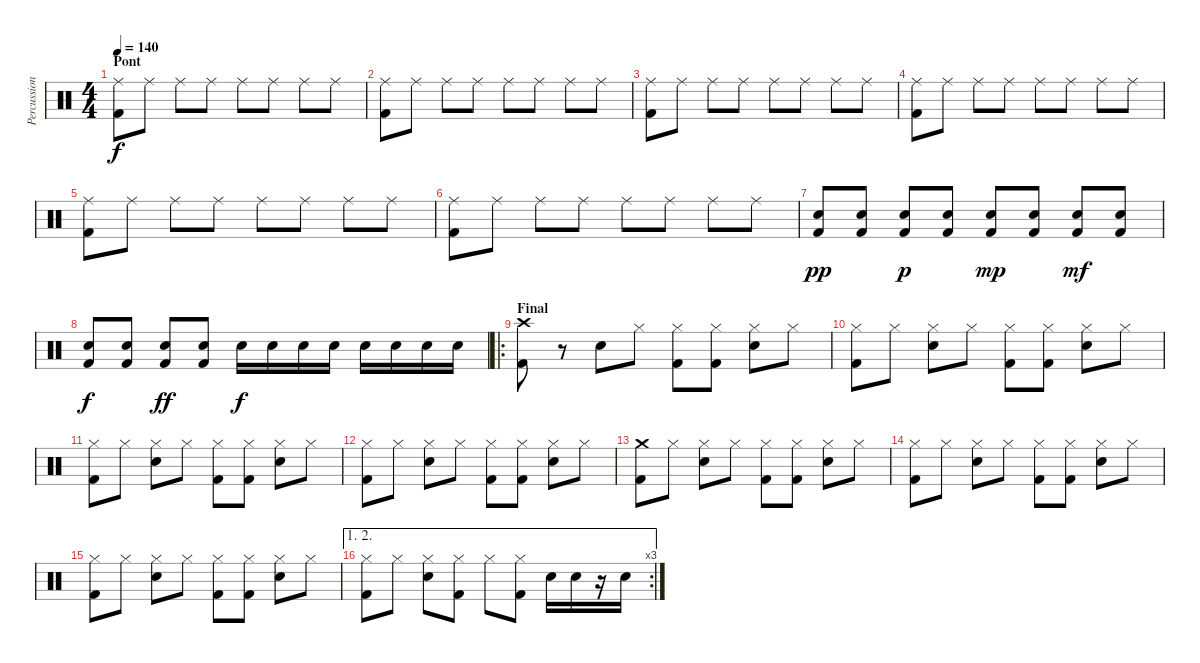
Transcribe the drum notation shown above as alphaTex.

\track ("Percussions" "Percussion") {instrument percussion}
\staff {score}
\articulation defaults
\ts (4 4)
\section ("" "Pont")
\tempo 140
\clef neutral
\ks c
("Ride (middle)" "Kick (hit) 2").8{dy f} "Ride (middle)".8 "Ride (middle)".8 "Ride (middle)".8 "Ride (middle)".8 "Ride (middle)".8 "Ride (middle)".8 "Ride (middle)".8 |
("Ride (middle)" "Kick (hit) 2").8 "Ride (middle)".8 "Ride (middle)".8 "Ride (middle)".8 "Ride (middle)".8 "Ride (middle)".8 "Ride (middle)".8 "Ride (middle)".8 |
("Ride (middle)" "Kick (hit) 2").8 "Ride (middle)".8 "Ride (middle)".8 "Ride (middle)".8 "Ride (middle)".8 "Ride (middle)".8 "Ride (middle)".8 "Ride (middle)".8 |
("Ride (middle)" "Kick (hit) 2").8 "Ride (middle)".8 "Ride (middle)".8 "Ride (middle)".8 "Ride (middle)".8 "Ride (middle)".8 "Ride (middle)".8 "Ride (middle)".8 |
("Ride (middle)" "Kick (hit) 2").8 "Ride (middle)".8 "Ride (middle)".8 "Ride (middle)".8 "Ride (middle)".8 "Ride (middle)".8 "Ride (middle)".8 "Ride (middle)".8 |
("Ride (middle)" "Kick (hit) 2").8 "Ride (middle)".8 "Ride (middle)".8 "Ride (middle)".8 "Ride (middle)".8 "Ride (middle)".8 "Ride (middle)".8 "Ride (middle)".8 |
("Snare (hit) 2" "Kick (hit) 2").8{dy pp} ("Snare (hit) 2" "Kick (hit) 2").8 ("Snare (hit) 2" "Kick (hit) 2").8{dy p} ("Snare (hit) 2" "Kick (hit) 2").8 ("Snare (hit) 2" "Kick (hit) 2").8{dy mp} ("Snare (hit) 2" "Kick (hit) 2").8 ("Snare (hit) 2" "Kick (hit) 2").8{dy mf} ("Snare (hit) 2" "Kick (hit) 2").8 |
("Snare (hit) 2" "Kick (hit) 2").8{dy f} ("Snare (hit) 2" "Kick (hit) 2").8 ("Snare (hit) 2" "Kick (hit) 2").8{dy ff} ("Snare (hit) 2" "Kick (hit) 2").8 "Electric Snare (hit)".16{dy f} "Electric Snare (hit)".16 "Electric Snare (hit)".16 "Electric Snare (hit)".16 "Electric Snare (hit)".16 "Electric Snare (hit)".16 "Electric Snare (hit)".16 "Electric Snare (hit)".16 |
\ro
\section ("" "Final")
("Crash high (hit)" "Kick (hit) 2").8 r.8 "Electric Snare (hit)".8 "Hi-Hat (closed)".8 ("Hi-Hat (closed)" "Kick (hit) 2").8 ("Hi-Hat (closed)" "Kick (hit) 2").8 ("Hi-Hat (closed)" "Electric Snare (hit)").8 "Hi-Hat (closed)".8 |
("Hi-Hat (closed)" "Kick (hit) 2").8 "Hi-Hat (closed)".8 ("Hi-Hat (closed)" "Electric Snare (hit)").8 "Hi-Hat (closed)".8 ("Hi-Hat (closed)" "Kick (hit) 2").8 ("Hi-Hat (closed)" "Kick (hit) 2").8 ("Hi-Hat (closed)" "Electric Snare (hit)").8 "Hi-Hat (closed)".8 |
("Hi-Hat (closed)" "Kick (hit) 2").8 "Hi-Hat (closed)".8 ("Hi-Hat (closed)" "Electric Snare (hit)").8 "Hi-Hat (closed)".8 ("Hi-Hat (closed)" "Kick (hit) 2").8 ("Hi-Hat (closed)" "Kick (hit) 2").8 ("Hi-Hat (closed)" "Electric Snare (hit)").8 "Hi-Hat (closed)".8 |
("Hi-Hat (closed)" "Kick (hit) 2").8 "Hi-Hat (closed)".8 ("Hi-Hat (closed)" "Electric Snare (hit)").8 "Hi-Hat (closed)".8 ("Hi-Hat (closed)" "Kick (hit) 2").8 ("Hi-Hat (closed)" "Kick (hit) 2").8 ("Hi-Hat (closed)" "Electric Snare (hit)").8 "Hi-Hat (closed)".8 |
("Crash medium (hit)" "Kick (hit) 2").8 "Hi-Hat (closed)".8 ("Hi-Hat (closed)" "Electric Snare (hit)").8 "Hi-Hat (closed)".8 ("Hi-Hat (closed)" "Kick (hit) 2").8 ("Hi-Hat (closed)" "Kick (hit) 2").8 ("Hi-Hat (closed)" "Electric Snare (hit)").8 "Hi-Hat (closed)".8 |
("Hi-Hat (closed)" "Kick (hit) 2").8 "Hi-Hat (closed)".8 ("Hi-Hat (closed)" "Electric Snare (hit)").8 "Hi-Hat (closed)".8 ("Hi-Hat (closed)" "Kick (hit) 2").8 ("Hi-Hat (closed)" "Kick (hit) 2").8 ("Hi-Hat (closed)" "Electric Snare (hit)").8 "Hi-Hat (closed)".8 |
("Hi-Hat (closed)" "Kick (hit) 2").8 "Hi-Hat (closed)".8 ("Hi-Hat (closed)" "Electric Snare (hit)").8 "Hi-Hat (closed)".8 ("Hi-Hat (closed)" "Kick (hit) 2").8 ("Hi-Hat (closed)" "Kick (hit) 2").8 ("Hi-Hat (closed)" "Electric Snare (hit)").8 "Hi-Hat (closed)".8 |
\ae (1 2)
\rc 3
("Hi-Hat (closed)" "Kick (hit) 2").8 "Hi-Hat (closed)".8 ("Hi-Hat (closed)" "Electric Snare (hit)").8 ("Hi-Hat (closed)" "Kick (hit) 2").8 "Hi-Hat (closed)".8 ("Hi-Hat (closed)" "Kick (hit) 2").8 "Electric Snare (hit)".16 "Electric Snare (hit)".16 r.16 "Electric Snare (hit)".16
